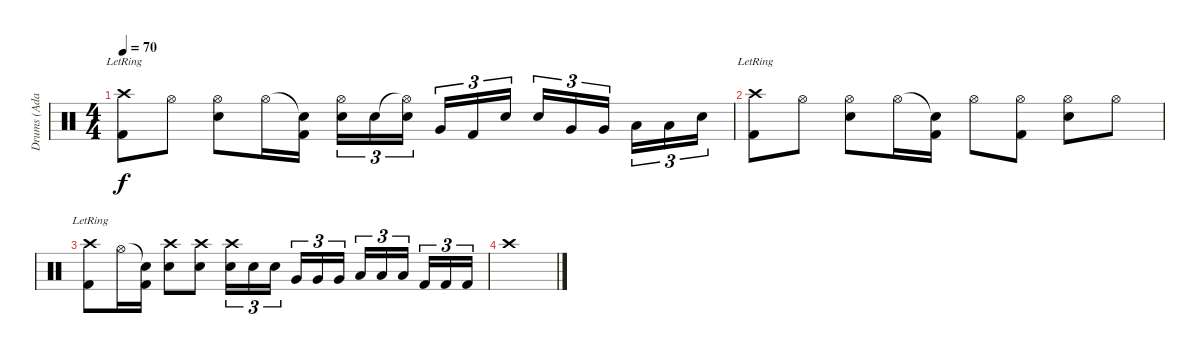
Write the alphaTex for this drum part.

\track ("Drums (Adam) " "Drums (Ada") {instrument percussion}
\staff {score}
\articulation defaults
\ts (4 4)
\tempo 70
\clef neutral
\ks c
("Crash high (hit)"{lr} "Kick (hit) 2").8{dy f} "Hi-Hat (open)".8 ("Hi-Hat (open)" "Electric Snare (hit)").8 "Hi-Hat (open)".16 ("Snare (hit)"{t} "Kick (hit) 2").16 ("Hi-Hat (open)" "Electric Snare (hit)").16{tu (3 2)} "Electric Snare (hit)".16{tu (3 2)} ("Hi-Hat (open)"{t} "Electric Snare (hit)").16{tu (3 2) beam splitsecondary} "Very Low Tom (hit)".16{tu (3 2)} "Kick (hit) 2".16{tu (3 2)} "Electric Snare (hit)".16{tu (3 2)} "Electric Snare (hit)".16{tu (3 2)} "Very Low Tom (hit)".16{tu (3 2)} "Very Low Tom (hit)".16{tu (3 2) beam splitsecondary} "Low Floor Tom (hit)".16{tu (3 2)} "Low Floor Tom (hit)".16{tu (3 2)} "Electric Snare (hit)".16{tu (3 2)} |
("Crash high (hit)"{lr} "Kick (hit) 2").8 "Hi-Hat (open)".8 ("Hi-Hat (open)" "Electric Snare (hit)").8 "Hi-Hat (open)".16 ("Snare (hit)"{t} "Kick (hit) 2").16 "Hi-Hat (open)".8 ("Hi-Hat (open)" "Kick (hit) 2").8 ("Hi-Hat (open)" "Electric Snare (hit)").8 "Hi-Hat (open)".8 |
("Crash high (hit)"{lr} "Kick (hit) 2").8 "Hi-Hat (open)".16 ("Snare (hit)"{t} "Kick (hit) 2").16 ("Crash high (hit)" "Electric Snare (hit)").8 ("Crash high (hit)" "Electric Snare (hit)").8 ("Crash high (hit)" "Electric Snare (hit)").16{tu (3 2)} "Electric Snare (hit)".16{tu (3 2)} "Electric Snare (hit)".16{tu (3 2) beam splitsecondary} "Very Low Tom (hit)".16{tu (3 2)} "Very Low Tom (hit)".16{tu (3 2)} "Very Low Tom (hit)".16{tu (3 2)} "Low Floor Tom (hit)".16{tu (3 2)} "Low Floor Tom (hit)".16{tu (3 2)} "Low Floor Tom (hit)".16{tu (3 2) beam splitsecondary} "Kick (hit) 2".16{tu (3 2)} "Kick (hit) 2".16{tu (3 2)} "Kick (hit) 2".16{tu (3 2)} |
"Crash high (hit)".1
